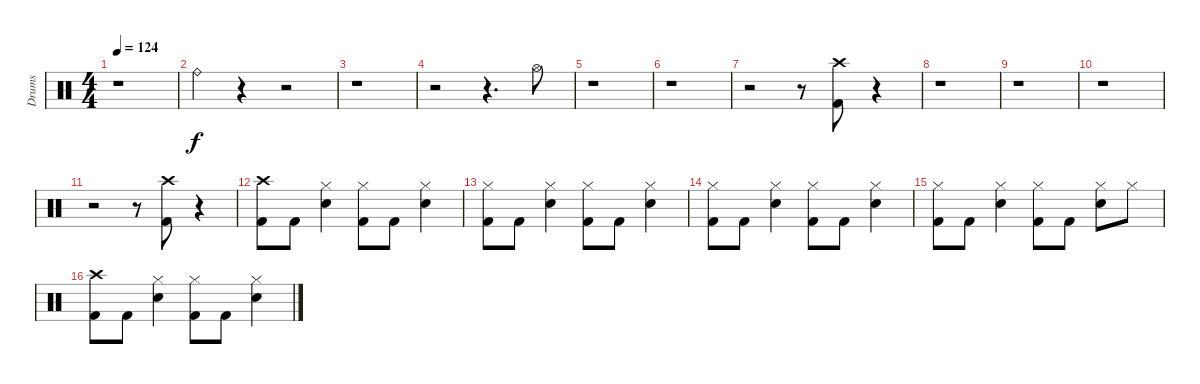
\track ("Drums" "Drums") {instrument percussion}
\staff {score}
\articulation defaults
\ts (4 4)
\tempo 124
\clef neutral
\ks c
r.1{dy f} |
"Ride (bell)".4 r.4 r.2 |
r.1 |
r.2 r.4{d} "Hi-Hat (open)".8 |
r.1 |
r.1 |
r.2 r.8 ("Kick (hit) 2" "Crash high (hit)").8 r.4 |
r.1 |
r.1 |
r.1 |
r.2 r.8 ("Kick (hit) 2" "Crash high (hit)").8 r.4 |
("Kick (hit) 2" "Crash high (hit)").8 "Kick (hit) 2".8 ("Snare (hit) 2" "Hi-Hat (closed)").4 ("Kick (hit) 2" "Hi-Hat (closed)").8 "Kick (hit) 2".8 ("Snare (hit) 2" "Hi-Hat (closed)").4 |
("Kick (hit) 2" "Hi-Hat (closed)").8 "Kick (hit) 2".8 ("Snare (hit) 2" "Hi-Hat (closed)").4 ("Kick (hit) 2" "Hi-Hat (closed)").8 "Kick (hit) 2".8 ("Snare (hit) 2" "Hi-Hat (closed)").4 |
("Kick (hit) 2" "Hi-Hat (closed)").8 "Kick (hit) 2".8 ("Snare (hit) 2" "Hi-Hat (closed)").4 ("Kick (hit) 2" "Hi-Hat (closed)").8 "Kick (hit) 2".8 ("Snare (hit) 2" "Hi-Hat (closed)").4 |
("Kick (hit) 2" "Hi-Hat (closed)").8 "Kick (hit) 2".8 ("Snare (hit) 2" "Hi-Hat (closed)").4 ("Kick (hit) 2" "Hi-Hat (closed)").8 "Kick (hit) 2".8 ("Snare (hit) 2" "Hi-Hat (closed)").8 "Hi-Hat (closed)".8 |
("Kick (hit) 2" "Crash high (hit)").8 "Kick (hit) 2".8 ("Snare (hit) 2" "Hi-Hat (closed)").4 ("Kick (hit) 2" "Hi-Hat (closed)").8 "Kick (hit) 2".8 ("Snare (hit) 2" "Hi-Hat (closed)").4
